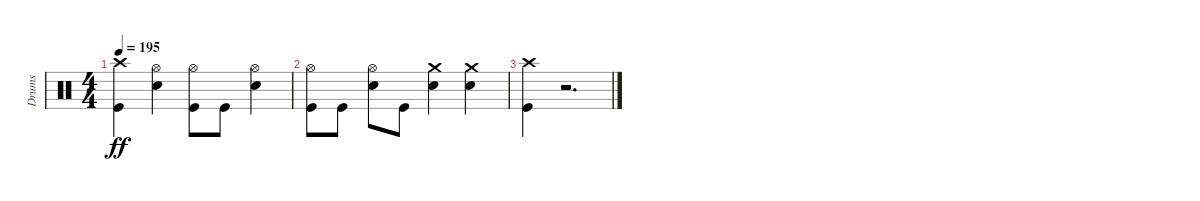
\track ("Drums" "Drums") {instrument percussion}
\staff {score}
\articulation defaults
\ts (4 4)
\tempo 195
\clef neutral
\ks c
("Crash high (hit)" "Kick (hit)").4{dy ff} ("Hi-Hat (open)" "Snare (hit) 2").4 ("Hi-Hat (open)" "Kick (hit)").8 "Kick (hit)".8 ("Hi-Hat (open)" "Snare (hit) 2").4 |
("Hi-Hat (open)" "Kick (hit)").8 "Kick (hit)".8 ("Hi-Hat (open)" "Snare (hit) 2").8 "Kick (hit)".8 ("Crash medium (hit)" "Snare (hit) 2").4 ("Crash medium (hit)" "Snare (hit) 2").4 |
("Crash high (hit)" "Kick (hit)").4 r.2{d}
